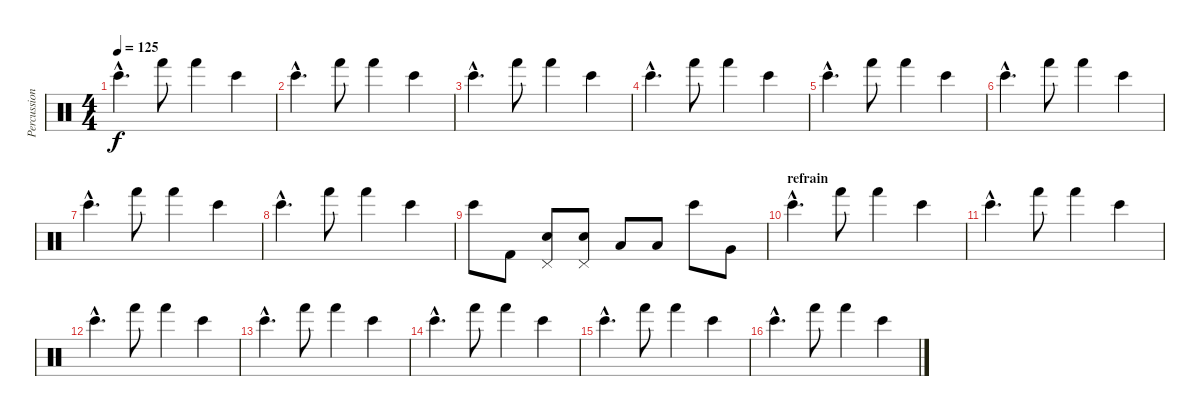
\track ("Percussions" "Percussion") {instrument percussion}
\staff {score}
\articulation defaults
\ts (4 4)
\tempo 125
\clef neutral
\ks c "Bongo High (hit)"{hac}.4{d dy f} "Hand (hit)".8 "Hand (hit)".4 "Bongo High (hit)".4
|
"Bongo High (hit)"{hac}.4{d} "Hand (hit)".8 "Hand (hit)".4 "Bongo High (hit)".4 |
"Bongo High (hit)"{hac}.4{d} "Hand (hit)".8 "Hand (hit)".4 "Bongo High (hit)".4 |
"Bongo High (hit)"{hac}.4{d} "Hand (hit)".8 "Hand (hit)".4 "Bongo High (hit)".4 |
"Bongo High (hit)"{hac}.4{d} "Hand (hit)".8 "Hand (hit)".4 "Bongo High (hit)".4 |
"Bongo High (hit)"{hac}.4{d} "Hand (hit)".8 "Hand (hit)".4 "Bongo High (hit)".4 |
"Bongo High (hit)"{hac}.4{d} "Hand (hit)".8 "Hand (hit)".4 "Bongo High (hit)".4 |
"Bongo High (hit)"{hac}.4{d} "Hand (hit)".8 "Hand (hit)".4 "Bongo High (hit)".4 |
\section ("" "")
"Bongo High (hit)".8 "Kick (hit) 2".8 ("Pedal Hi-Hat (hit)" "Electric Snare (hit)").8 ("Pedal Hi-Hat (hit)" "Electric Snare (hit)").8 "Low Tom (hit)".8 "Low Tom (hit)".8 "Bongo High (hit)".8 "Very Low Tom (hit)".8 |
\section ("" "refrain")
"Bongo High (hit)"{hac}.4{d} "Hand (hit)".8 "Hand (hit)".4 "Bongo High (hit)".4 |
"Bongo High (hit)"{hac}.4{d} "Hand (hit)".8 "Hand (hit)".4 "Bongo High (hit)".4 |
"Bongo High (hit)"{hac}.4{d} "Hand (hit)".8 "Hand (hit)".4 "Bongo High (hit)".4 |
"Bongo High (hit)"{hac}.4{d} "Hand (hit)".8 "Hand (hit)".4 "Bongo High (hit)".4 |
"Bongo High (hit)"{hac}.4{d} "Hand (hit)".8 "Hand (hit)".4 "Bongo High (hit)".4 |
"Bongo High (hit)"{hac}.4{d} "Hand (hit)".8 "Hand (hit)".4 "Bongo High (hit)".4 |
"Bongo High (hit)"{hac}.4{d} "Hand (hit)".8 "Hand (hit)".4 "Bongo High (hit)".4
